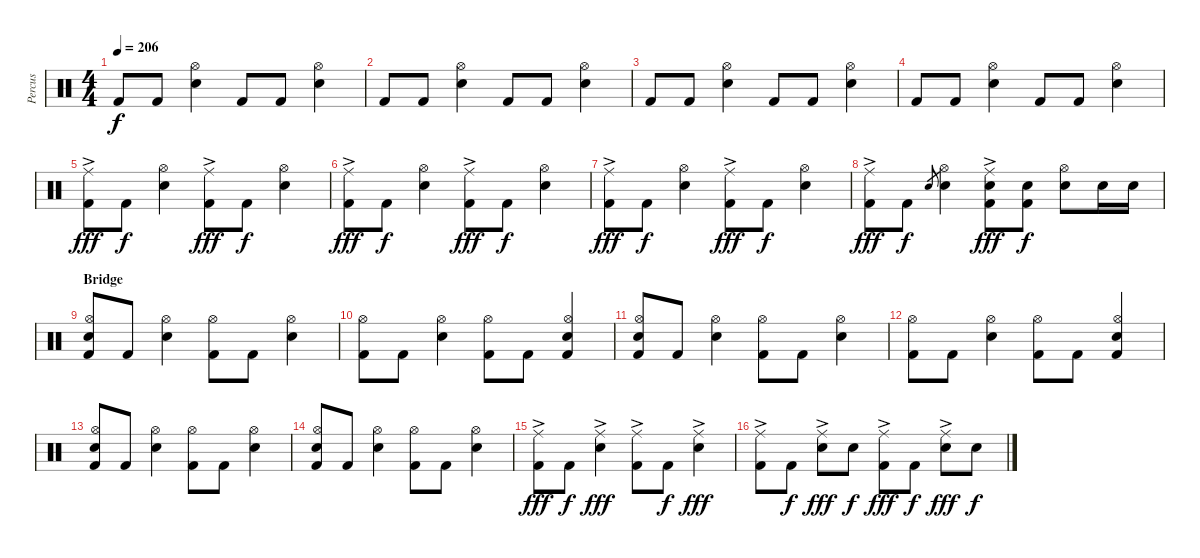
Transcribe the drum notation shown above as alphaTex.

\track ("Percus" "Percus") {instrument percussion}
\staff {score}
\articulation defaults
\ts (4 4)
\tempo 206
\clef neutral
\ks c "Kick (hit) 2".8{dy f} "Kick (hit) 2".8
("Hi-Hat (open)" "Snare (hit) 2").4 "Kick (hit) 2".8 "Kick (hit) 2".8 ("Hi-Hat (open)" "Snare (hit) 2").4 |
"Kick (hit) 2".8 "Kick (hit) 2".8 ("Hi-Hat (open)" "Snare (hit) 2").4 "Kick (hit) 2".8 "Kick (hit) 2".8 ("Hi-Hat (open)" "Snare (hit) 2").4 |
"Kick (hit) 2".8 "Kick (hit) 2".8 ("Hi-Hat (open)" "Snare (hit) 2").4 "Kick (hit) 2".8 "Kick (hit) 2".8 ("Hi-Hat (open)" "Snare (hit) 2").4 |
"Kick (hit) 2".8 "Kick (hit) 2".8 ("Hi-Hat (open)" "Snare (hit) 2").4 "Kick (hit) 2".8 "Kick (hit) 2".8 ("Hi-Hat (open)" "Snare (hit) 2").4 |
("Ride (middle)"{ac} "Kick (hit) 2").8{dy fff} "Kick (hit) 2".8{dy f} ("Hi-Hat (open)" "Snare (hit) 2").4 ("Ride (middle)"{ac} "Kick (hit) 2").8{dy fff} "Kick (hit) 2".8{dy f} ("Hi-Hat (open)" "Snare (hit) 2").4 |
("Ride (middle)"{ac} "Kick (hit) 2").8{dy fff} "Kick (hit) 2".8{dy f} ("Hi-Hat (open)" "Snare (hit) 2").4 ("Ride (middle)"{ac} "Kick (hit) 2").8{dy fff} "Kick (hit) 2".8{dy f} ("Hi-Hat (open)" "Snare (hit) 2").4 |
("Ride (middle)"{ac} "Kick (hit) 2").8{dy fff} "Kick (hit) 2".8{dy f} ("Hi-Hat (open)" "Snare (hit) 2").4 ("Ride (middle)"{ac} "Kick (hit) 2").8{dy fff} "Kick (hit) 2".8{dy f} ("Hi-Hat (open)" "Snare (hit) 2").4 |
("Ride (middle)"{ac} "Kick (hit) 2").8{dy fff} "Kick (hit) 2".8{dy f} "Snare (hit) 2".8{gr} ("Hi-Hat (open)" "Snare (hit) 2").4 ("Ride (middle)"{ac} "Snare (hit) 2" "Kick (hit) 2").8{dy fff} ("Snare (hit) 2" "Kick (hit) 2").8{dy f} ("Hi-Hat (open)" "Snare (hit) 2").8 "Snare (hit) 2".16 "Snare (hit) 2".16 |
\section ("" "Bridge")
("Hi-Hat (open)" "Snare (hit) 2" "Kick (hit) 2").8 "Kick (hit) 2".8 ("Hi-Hat (open)" "Snare (hit) 2").4 ("Hi-Hat (open)" "Kick (hit) 2").8 "Kick (hit) 2".8 ("Hi-Hat (open)" "Snare (hit) 2").4 |
("Hi-Hat (open)" "Kick (hit) 2").8 "Kick (hit) 2".8 ("Hi-Hat (open)" "Snare (hit) 2").4 ("Hi-Hat (open)" "Kick (hit) 2").8 "Kick (hit) 2".8 ("Hi-Hat (open)" "Snare (hit) 2" "Kick (hit) 2").4 |
("Hi-Hat (open)" "Snare (hit) 2" "Kick (hit) 2").8 "Kick (hit) 2".8 ("Hi-Hat (open)" "Snare (hit) 2").4 ("Hi-Hat (open)" "Kick (hit) 2").8 "Kick (hit) 2".8 ("Hi-Hat (open)" "Snare (hit) 2").4 |
("Hi-Hat (open)" "Kick (hit) 2").8 "Kick (hit) 2".8 ("Hi-Hat (open)" "Snare (hit) 2").4 ("Hi-Hat (open)" "Kick (hit) 2").8 "Kick (hit) 2".8 ("Hi-Hat (open)" "Snare (hit) 2" "Kick (hit) 2").4 |
("Hi-Hat (open)" "Snare (hit) 2" "Kick (hit) 2").8 "Kick (hit) 2".8 ("Hi-Hat (open)" "Snare (hit) 2").4 ("Hi-Hat (open)" "Kick (hit) 2").8 "Kick (hit) 2".8 ("Hi-Hat (open)" "Snare (hit) 2").4 |
("Hi-Hat (open)" "Snare (hit) 2" "Kick (hit) 2").8 "Kick (hit) 2".8 ("Hi-Hat (open)" "Snare (hit) 2").4 ("Hi-Hat (open)" "Kick (hit) 2").8 "Kick (hit) 2".8 ("Hi-Hat (open)" "Snare (hit) 2").4 |
("Ride (middle)"{ac} "Kick (hit) 2").8{dy fff} "Kick (hit) 2".8{dy f} ("Ride (middle)"{ac} "Snare (hit) 2").4{dy fff} ("Ride (middle)"{ac} "Kick (hit) 2").8 "Kick (hit) 2".8{dy f} ("Ride (middle)"{ac} "Snare (hit) 2").4{dy fff} |
("Ride (middle)"{ac} "Kick (hit) 2").8 "Kick (hit) 2".8{dy f} ("Ride (middle)"{ac} "Snare (hit) 2").8{dy fff} "Snare (hit) 2".8{dy f} ("Ride (middle)"{ac} "Kick (hit) 2").8{dy fff} "Kick (hit) 2".8{dy f} ("Ride (middle)"{ac} "Snare (hit) 2").8{dy fff} "Snare (hit) 2".8{dy f}
